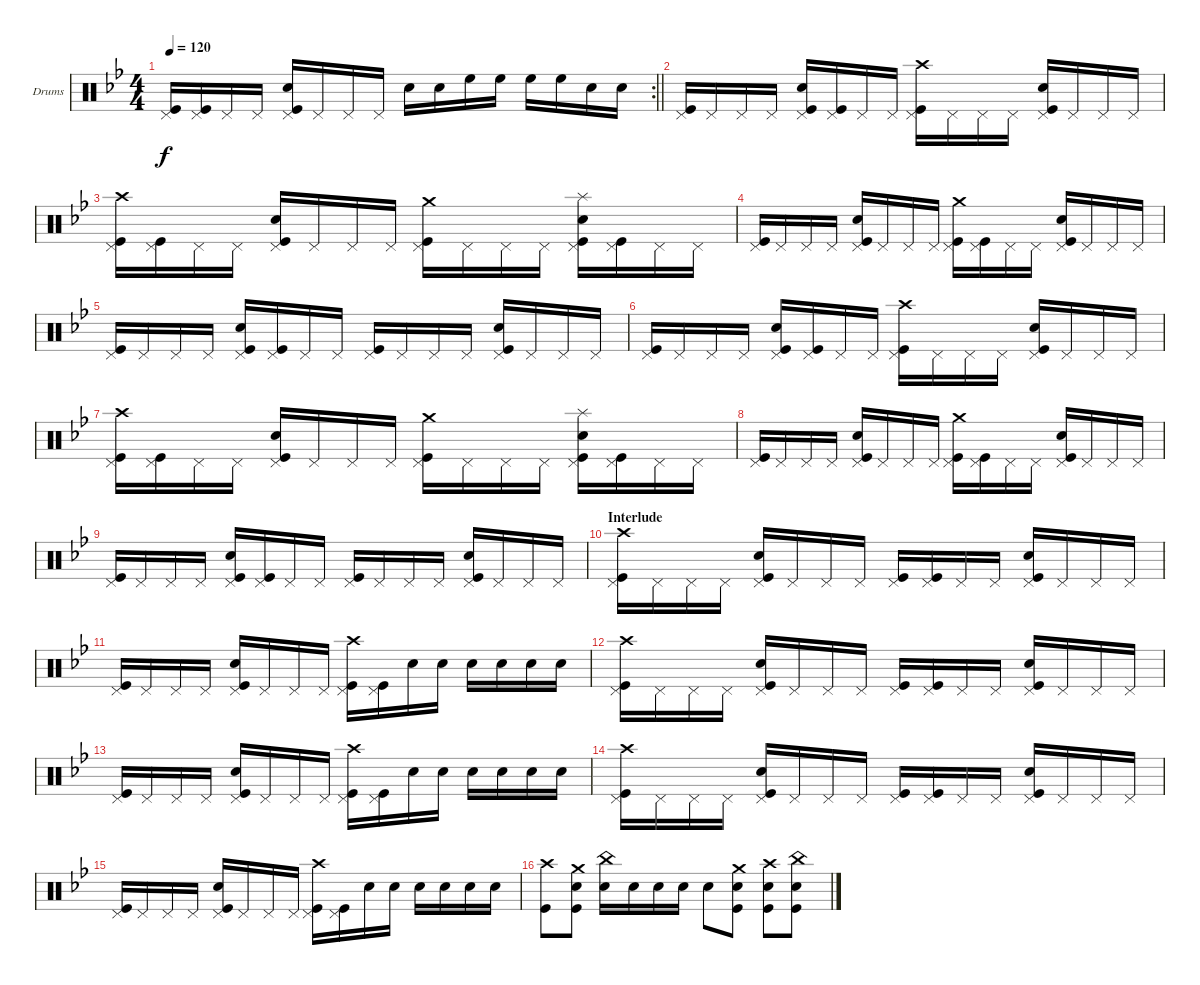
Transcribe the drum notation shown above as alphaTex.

\bracketExtendMode groupsimilarinstruments
\firstSystemTrackNameOrientation horizontal
\otherSystemsTrackNameOrientation horizontal
\track ("Drumkit" "Drums") {instrument percussion}
\staff {score}
\articulation defaults
\rc 2
\ts (4 4)
\tempo 120
\clef neutral
\barLineRight lightlight
\ks bb
("Pedal Hi-Hat (hit)" "Kick (hit)").16{dy f} ("Pedal Hi-Hat (hit)" "Kick (hit)").16 "Pedal Hi-Hat (hit)".16 "Pedal Hi-Hat (hit)".16 ("Snare (hit) 2" "Pedal Hi-Hat (hit)" "Kick (hit)").16 "Pedal Hi-Hat (hit)".16 "Pedal Hi-Hat (hit)".16 "Pedal Hi-Hat (hit)".16 "Snare (hit) 2".16 "Snare (hit) 2".16 "High Floor Tom (hit)".16 "High Floor Tom (hit)".16 "High Floor Tom (hit)".16 "High Floor Tom (hit)".16 "Snare (hit) 2".16 "Snare (hit) 2".16 |
("Pedal Hi-Hat (hit)" "Kick (hit)").16 "Pedal Hi-Hat (hit)".16 "Pedal Hi-Hat (hit)".16 "Pedal Hi-Hat (hit)".16 ("Snare (hit) 2" "Pedal Hi-Hat (hit)" "Kick (hit)").16 ("Pedal Hi-Hat (hit)" "Kick (hit)").16 "Pedal Hi-Hat (hit)".16 "Pedal Hi-Hat (hit)".16 ("Crash high (hit)" "Pedal Hi-Hat (hit)" "Kick (hit)").16 "Pedal Hi-Hat (hit)".16 "Pedal Hi-Hat (hit)".16 "Pedal Hi-Hat (hit)".16 ("Snare (hit) 2" "Pedal Hi-Hat (hit)" "Kick (hit)").16 "Pedal Hi-Hat (hit)".16 "Pedal Hi-Hat (hit)".16 "Pedal Hi-Hat (hit)".16 |
("Crash high (hit)" "Pedal Hi-Hat (hit)" "Kick (hit)").16 ("Pedal Hi-Hat (hit)" "Kick (hit)").16 "Pedal Hi-Hat (hit)".16 "Pedal Hi-Hat (hit)".16 ("Snare (hit) 2" "Pedal Hi-Hat (hit)" "Kick (hit)").16 "Pedal Hi-Hat (hit)".16 "Pedal Hi-Hat (hit)".16 "Pedal Hi-Hat (hit)".16 ("Crash medium (hit)" "Pedal Hi-Hat (hit)" "Kick (hit)").16 "Pedal Hi-Hat (hit)".16 "Pedal Hi-Hat (hit)".16 "Pedal Hi-Hat (hit)".16 ("Splash (hit)" "Snare (hit) 2" "Pedal Hi-Hat (hit)" "Kick (hit)").16 ("Pedal Hi-Hat (hit)" "Kick (hit)").16 "Pedal Hi-Hat (hit)".16 "Pedal Hi-Hat (hit)".16 |
("Pedal Hi-Hat (hit)" "Kick (hit)").16 "Pedal Hi-Hat (hit)".16 "Pedal Hi-Hat (hit)".16 "Pedal Hi-Hat (hit)".16 ("Snare (hit) 2" "Pedal Hi-Hat (hit)" "Kick (hit)").16 "Pedal Hi-Hat (hit)".16 "Pedal Hi-Hat (hit)".16 "Pedal Hi-Hat (hit)".16 ("Crash medium (hit)" "Pedal Hi-Hat (hit)" "Kick (hit)").16 ("Pedal Hi-Hat (hit)" "Kick (hit)").16 "Pedal Hi-Hat (hit)".16 "Pedal Hi-Hat (hit)".16 ("Snare (hit) 2" "Pedal Hi-Hat (hit)" "Kick (hit)").16 "Pedal Hi-Hat (hit)".16 "Pedal Hi-Hat (hit)".16 "Pedal Hi-Hat (hit)".16 |
("Pedal Hi-Hat (hit)" "Kick (hit)").16 "Pedal Hi-Hat (hit)".16 "Pedal Hi-Hat (hit)".16 "Pedal Hi-Hat (hit)".16 ("Snare (hit) 2" "Pedal Hi-Hat (hit)" "Kick (hit)").16 ("Pedal Hi-Hat (hit)" "Kick (hit)").16 "Pedal Hi-Hat (hit)".16 "Pedal Hi-Hat (hit)".16 ("Pedal Hi-Hat (hit)" "Kick (hit)").16 "Pedal Hi-Hat (hit)".16 "Pedal Hi-Hat (hit)".16 "Pedal Hi-Hat (hit)".16 ("Snare (hit) 2" "Pedal Hi-Hat (hit)" "Kick (hit)").16 "Pedal Hi-Hat (hit)".16 "Pedal Hi-Hat (hit)".16 "Pedal Hi-Hat (hit)".16 |
("Pedal Hi-Hat (hit)" "Kick (hit)").16 "Pedal Hi-Hat (hit)".16 "Pedal Hi-Hat (hit)".16 "Pedal Hi-Hat (hit)".16 ("Snare (hit) 2" "Pedal Hi-Hat (hit)" "Kick (hit)").16 ("Pedal Hi-Hat (hit)" "Kick (hit)").16 "Pedal Hi-Hat (hit)".16 "Pedal Hi-Hat (hit)".16 ("Crash high (hit)" "Pedal Hi-Hat (hit)" "Kick (hit)").16 "Pedal Hi-Hat (hit)".16 "Pedal Hi-Hat (hit)".16 "Pedal Hi-Hat (hit)".16 ("Snare (hit) 2" "Pedal Hi-Hat (hit)" "Kick (hit)").16 "Pedal Hi-Hat (hit)".16 "Pedal Hi-Hat (hit)".16 "Pedal Hi-Hat (hit)".16 |
("Crash high (hit)" "Pedal Hi-Hat (hit)" "Kick (hit)").16 ("Pedal Hi-Hat (hit)" "Kick (hit)").16 "Pedal Hi-Hat (hit)".16 "Pedal Hi-Hat (hit)".16 ("Snare (hit) 2" "Pedal Hi-Hat (hit)" "Kick (hit)").16 "Pedal Hi-Hat (hit)".16 "Pedal Hi-Hat (hit)".16 "Pedal Hi-Hat (hit)".16 ("Crash medium (hit)" "Pedal Hi-Hat (hit)" "Kick (hit)").16 "Pedal Hi-Hat (hit)".16 "Pedal Hi-Hat (hit)".16 "Pedal Hi-Hat (hit)".16 ("Splash (hit)" "Snare (hit) 2" "Pedal Hi-Hat (hit)" "Kick (hit)").16 ("Pedal Hi-Hat (hit)" "Kick (hit)").16 "Pedal Hi-Hat (hit)".16 "Pedal Hi-Hat (hit)".16 |
("Pedal Hi-Hat (hit)" "Kick (hit)").16 "Pedal Hi-Hat (hit)".16 "Pedal Hi-Hat (hit)".16 "Pedal Hi-Hat (hit)".16 ("Snare (hit) 2" "Pedal Hi-Hat (hit)" "Kick (hit)").16 "Pedal Hi-Hat (hit)".16 "Pedal Hi-Hat (hit)".16 "Pedal Hi-Hat (hit)".16 ("Crash medium (hit)" "Pedal Hi-Hat (hit)" "Kick (hit)").16 ("Pedal Hi-Hat (hit)" "Kick (hit)").16 "Pedal Hi-Hat (hit)".16 "Pedal Hi-Hat (hit)".16 ("Snare (hit) 2" "Pedal Hi-Hat (hit)" "Kick (hit)").16 "Pedal Hi-Hat (hit)".16 "Pedal Hi-Hat (hit)".16 "Pedal Hi-Hat (hit)".16 |
("Pedal Hi-Hat (hit)" "Kick (hit)").16 "Pedal Hi-Hat (hit)".16 "Pedal Hi-Hat (hit)".16 "Pedal Hi-Hat (hit)".16 ("Snare (hit) 2" "Pedal Hi-Hat (hit)" "Kick (hit)").16 ("Pedal Hi-Hat (hit)" "Kick (hit)").16 "Pedal Hi-Hat (hit)".16 "Pedal Hi-Hat (hit)".16 ("Pedal Hi-Hat (hit)" "Kick (hit)").16 "Pedal Hi-Hat (hit)".16 "Pedal Hi-Hat (hit)".16 "Pedal Hi-Hat (hit)".16 ("Snare (hit) 2" "Pedal Hi-Hat (hit)" "Kick (hit)").16 "Pedal Hi-Hat (hit)".16 "Pedal Hi-Hat (hit)".16 "Pedal Hi-Hat (hit)".16 |
\section ("" "Interlude")
("Crash high (hit)" "Pedal Hi-Hat (hit)" "Kick (hit)").16 "Pedal Hi-Hat (hit)".16 "Pedal Hi-Hat (hit)".16 "Pedal Hi-Hat (hit)".16 ("Snare (hit) 2" "Pedal Hi-Hat (hit)" "Kick (hit)").16 "Pedal Hi-Hat (hit)".16 "Pedal Hi-Hat (hit)".16 "Pedal Hi-Hat (hit)".16 ("Pedal Hi-Hat (hit)" "Kick (hit)").16 ("Pedal Hi-Hat (hit)" "Kick (hit)").16 "Pedal Hi-Hat (hit)".16 "Pedal Hi-Hat (hit)".16 ("Snare (hit) 2" "Pedal Hi-Hat (hit)" "Kick (hit)").16 "Pedal Hi-Hat (hit)".16 "Pedal Hi-Hat (hit)".16 "Pedal Hi-Hat (hit)".16 |
("Pedal Hi-Hat (hit)" "Kick (hit)").16 "Pedal Hi-Hat (hit)".16 "Pedal Hi-Hat (hit)".16 "Pedal Hi-Hat (hit)".16 ("Snare (hit) 2" "Pedal Hi-Hat (hit)" "Kick (hit)").16 "Pedal Hi-Hat (hit)".16 "Pedal Hi-Hat (hit)".16 "Pedal Hi-Hat (hit)".16 ("Crash high (hit)" "Pedal Hi-Hat (hit)" "Kick (hit)").16 ("Pedal Hi-Hat (hit)" "Kick (hit)").16 "Snare (hit) 2".16 "Snare (hit) 2".16 "Snare (hit) 2".16 "Snare (hit) 2".16 "Snare (hit) 2".16 "Snare (hit) 2".16 |
("Crash high (hit)" "Pedal Hi-Hat (hit)" "Kick (hit)").16 "Pedal Hi-Hat (hit)".16 "Pedal Hi-Hat (hit)".16 "Pedal Hi-Hat (hit)".16 ("Snare (hit) 2" "Pedal Hi-Hat (hit)" "Kick (hit)").16 "Pedal Hi-Hat (hit)".16 "Pedal Hi-Hat (hit)".16 "Pedal Hi-Hat (hit)".16 ("Pedal Hi-Hat (hit)" "Kick (hit)").16 ("Pedal Hi-Hat (hit)" "Kick (hit)").16 "Pedal Hi-Hat (hit)".16 "Pedal Hi-Hat (hit)".16 ("Snare (hit) 2" "Pedal Hi-Hat (hit)" "Kick (hit)").16 "Pedal Hi-Hat (hit)".16 "Pedal Hi-Hat (hit)".16 "Pedal Hi-Hat (hit)".16 |
("Pedal Hi-Hat (hit)" "Kick (hit)").16 "Pedal Hi-Hat (hit)".16 "Pedal Hi-Hat (hit)".16 "Pedal Hi-Hat (hit)".16 ("Snare (hit) 2" "Pedal Hi-Hat (hit)" "Kick (hit)").16 "Pedal Hi-Hat (hit)".16 "Pedal Hi-Hat (hit)".16 "Pedal Hi-Hat (hit)".16 ("Crash high (hit)" "Pedal Hi-Hat (hit)" "Kick (hit)").16 ("Pedal Hi-Hat (hit)" "Kick (hit)").16 "Snare (hit) 2".16 "Snare (hit) 2".16 "Snare (hit) 2".16 "Snare (hit) 2".16 "Snare (hit) 2".16 "Snare (hit) 2".16 |
("Crash high (hit)" "Pedal Hi-Hat (hit)" "Kick (hit)").16 "Pedal Hi-Hat (hit)".16 "Pedal Hi-Hat (hit)".16 "Pedal Hi-Hat (hit)".16 ("Snare (hit) 2" "Pedal Hi-Hat (hit)" "Kick (hit)").16 "Pedal Hi-Hat (hit)".16 "Pedal Hi-Hat (hit)".16 "Pedal Hi-Hat (hit)".16 ("Pedal Hi-Hat (hit)" "Kick (hit)").16 ("Pedal Hi-Hat (hit)" "Kick (hit)").16 "Pedal Hi-Hat (hit)".16 "Pedal Hi-Hat (hit)".16 ("Snare (hit) 2" "Pedal Hi-Hat (hit)" "Kick (hit)").16 "Pedal Hi-Hat (hit)".16 "Pedal Hi-Hat (hit)".16 "Pedal Hi-Hat (hit)".16 |
("Pedal Hi-Hat (hit)" "Kick (hit)").16 "Pedal Hi-Hat (hit)".16 "Pedal Hi-Hat (hit)".16 "Pedal Hi-Hat (hit)".16 ("Snare (hit) 2" "Pedal Hi-Hat (hit)" "Kick (hit)").16 "Pedal Hi-Hat (hit)".16 "Pedal Hi-Hat (hit)".16 "Pedal Hi-Hat (hit)".16 ("Crash high (hit)" "Pedal Hi-Hat (hit)" "Kick (hit)").16 ("Pedal Hi-Hat (hit)" "Kick (hit)").16 "Snare (hit) 2".16 "Snare (hit) 2".16 "Snare (hit) 2".16 "Snare (hit) 2".16 "Snare (hit) 2".16 "Snare (hit) 2".16 |
("Crash high (hit)" "Kick (hit)").8 ("Crash medium (hit)" "Snare (hit) 2" "Kick (hit)").8 ("China (hit)" "Snare (hit) 2").16 "Snare (hit) 2".16 "Snare (hit) 2".16 "Snare (hit) 2".16 "Snare (hit) 2".8 ("Crash medium (hit)" "Snare (hit) 2" "Kick (hit)").8 ("Crash high (hit)" "Snare (hit) 2" "Kick (hit)").8 ("China (hit)" "Snare (hit) 2" "Kick (hit)").8
